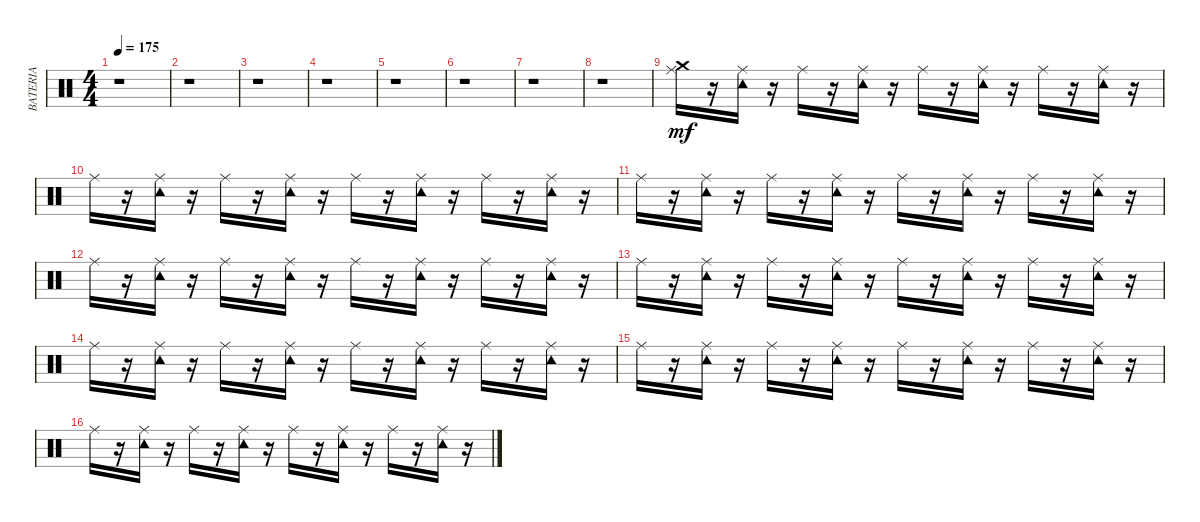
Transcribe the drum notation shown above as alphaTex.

\track ("BATERIA" "BATERIA") {instrument percussion}
\staff {score}
\articulation defaults
\ts (4 4)
\tempo 175
\clef neutral
\ks c
r.1{dy mf} |
r.1 |
r.1 |
r.1 |
r.1 |
r.1 |
r.1 |
r.1 |
("Crash medium (hit)" "Ride (middle)").16 r.16 ("Tambourine (hit)" "Ride (middle)").16 r.16 "Ride (middle)".16 r.16 ("Tambourine (hit)" "Ride (middle)").16 r.16 "Ride (middle)".16 r.16 ("Tambourine (hit)" "Ride (middle)").16 r.16 "Ride (middle)".16 r.16 ("Tambourine (hit)" "Ride (middle)").16 r.16 |
"Ride (middle)".16 r.16 ("Tambourine (hit)" "Ride (middle)").16 r.16 "Ride (middle)".16 r.16 ("Tambourine (hit)" "Ride (middle)").16 r.16 "Ride (middle)".16 r.16 ("Tambourine (hit)" "Ride (middle)").16 r.16 "Ride (middle)".16 r.16 ("Tambourine (hit)" "Ride (middle)").16 r.16 |
"Ride (middle)".16 r.16 ("Tambourine (hit)" "Ride (middle)").16 r.16 "Ride (middle)".16 r.16 ("Tambourine (hit)" "Ride (middle)").16 r.16 "Ride (middle)".16 r.16 ("Tambourine (hit)" "Ride (middle)").16 r.16 "Ride (middle)".16 r.16 ("Tambourine (hit)" "Ride (middle)").16 r.16 |
"Ride (middle)".16 r.16 ("Tambourine (hit)" "Ride (middle)").16 r.16 "Ride (middle)".16 r.16 ("Tambourine (hit)" "Ride (middle)").16 r.16 "Ride (middle)".16 r.16 ("Tambourine (hit)" "Ride (middle)").16 r.16 "Ride (middle)".16 r.16 ("Tambourine (hit)" "Ride (middle)").16 r.16 |
"Ride (middle)".16 r.16 ("Tambourine (hit)" "Ride (middle)").16 r.16 "Ride (middle)".16 r.16 ("Tambourine (hit)" "Ride (middle)").16 r.16 "Ride (middle)".16 r.16 ("Tambourine (hit)" "Ride (middle)").16 r.16 "Ride (middle)".16 r.16 ("Tambourine (hit)" "Ride (middle)").16 r.16 |
"Ride (middle)".16 r.16 ("Tambourine (hit)" "Ride (middle)").16 r.16 "Ride (middle)".16 r.16 ("Tambourine (hit)" "Ride (middle)").16 r.16 "Ride (middle)".16 r.16 ("Tambourine (hit)" "Ride (middle)").16 r.16 "Ride (middle)".16 r.16 ("Tambourine (hit)" "Ride (middle)").16 r.16 |
"Ride (middle)".16 r.16 ("Tambourine (hit)" "Ride (middle)").16 r.16 "Ride (middle)".16 r.16 ("Tambourine (hit)" "Ride (middle)").16 r.16 "Ride (middle)".16 r.16 ("Tambourine (hit)" "Ride (middle)").16 r.16 "Ride (middle)".16 r.16 ("Tambourine (hit)" "Ride (middle)").16 r.16 |
"Ride (middle)".16 r.16 ("Tambourine (hit)" "Ride (middle)").16 r.16 "Ride (middle)".16 r.16 ("Tambourine (hit)" "Ride (middle)").16 r.16 "Ride (middle)".16 r.16 ("Tambourine (hit)" "Ride (middle)").16 r.16 "Ride (middle)".16 r.16 ("Tambourine (hit)" "Ride (middle)").16 r.16
